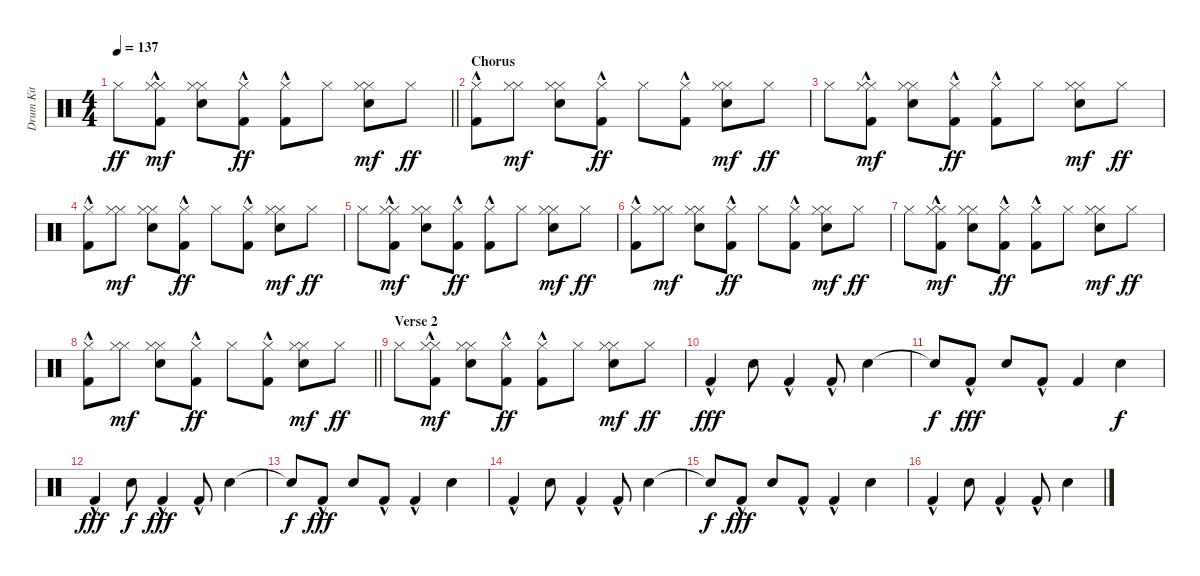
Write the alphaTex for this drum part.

\track ("Drum Kit" "Drum Kit") {instrument percussion}
\staff {score}
\articulation defaults
\ts (4 4)
\tempo 137
\clef neutral
\barLineRight lightlight
\ks c "Hi-Hat (closed)".8{dy ff}
("Kick (hit) 2"{hac} "Hi-Hat (closed)" "Hi-Hat (closed)").8{dy mf} ("Hand Clap (hit)" "Hi-Hat (closed)" "Hi-Hat (closed)").8 ("Kick (hit) 2"{hac} "Hi-Hat (closed)").8{dy ff} ("Kick (hit) 2"{hac} "Hi-Hat (closed)").8 "Hi-Hat (closed)".8 ("Hand Clap (hit)" "Hi-Hat (closed)" "Hi-Hat (closed)").8{dy mf} "Hi-Hat (closed)".8{dy ff} |
\section ("" "Chorus")
("Kick (hit) 2"{hac} "Hi-Hat (closed)").8 ("Hi-Hat (closed)" "Hi-Hat (closed)").8{dy mf} ("Hand Clap (hit)" "Hi-Hat (closed)" "Hi-Hat (closed)").8 ("Kick (hit) 2"{hac} "Hi-Hat (closed)").8{dy ff} "Hi-Hat (closed)".8 ("Kick (hit) 2"{hac} "Hi-Hat (closed)").8 ("Hand Clap (hit)" "Hi-Hat (closed)" "Hi-Hat (closed)").8{dy mf} "Hi-Hat (closed)".8{dy ff} |
"Hi-Hat (closed)".8 ("Kick (hit) 2"{hac} "Hi-Hat (closed)" "Hi-Hat (closed)").8{dy mf} ("Hand Clap (hit)" "Hi-Hat (closed)" "Hi-Hat (closed)").8 ("Kick (hit) 2"{hac} "Hi-Hat (closed)").8{dy ff} ("Kick (hit) 2"{hac} "Hi-Hat (closed)").8 "Hi-Hat (closed)".8 ("Hand Clap (hit)" "Hi-Hat (closed)" "Hi-Hat (closed)").8{dy mf} "Hi-Hat (closed)".8{dy ff} |
("Kick (hit) 2"{hac} "Hi-Hat (closed)").8 ("Hi-Hat (closed)" "Hi-Hat (closed)").8{dy mf} ("Hand Clap (hit)" "Hi-Hat (closed)" "Hi-Hat (closed)").8 ("Kick (hit) 2"{hac} "Hi-Hat (closed)").8{dy ff} "Hi-Hat (closed)".8 ("Kick (hit) 2"{hac} "Hi-Hat (closed)").8 ("Hand Clap (hit)" "Hi-Hat (closed)" "Hi-Hat (closed)").8{dy mf} "Hi-Hat (closed)".8{dy ff} |
"Hi-Hat (closed)".8 ("Kick (hit) 2"{hac} "Hi-Hat (closed)" "Hi-Hat (closed)").8{dy mf} ("Hand Clap (hit)" "Hi-Hat (closed)" "Hi-Hat (closed)").8 ("Kick (hit) 2"{hac} "Hi-Hat (closed)").8{dy ff} ("Kick (hit) 2"{hac} "Hi-Hat (closed)").8 "Hi-Hat (closed)".8 ("Hand Clap (hit)" "Hi-Hat (closed)" "Hi-Hat (closed)").8{dy mf} "Hi-Hat (closed)".8{dy ff} |
("Kick (hit) 2"{hac} "Hi-Hat (closed)").8 ("Hi-Hat (closed)" "Hi-Hat (closed)").8{dy mf} ("Hand Clap (hit)" "Hi-Hat (closed)" "Hi-Hat (closed)").8 ("Kick (hit) 2"{hac} "Hi-Hat (closed)").8{dy ff} "Hi-Hat (closed)".8 ("Kick (hit) 2"{hac} "Hi-Hat (closed)").8 ("Hand Clap (hit)" "Hi-Hat (closed)" "Hi-Hat (closed)").8{dy mf} "Hi-Hat (closed)".8{dy ff} |
"Hi-Hat (closed)".8 ("Kick (hit) 2"{hac} "Hi-Hat (closed)" "Hi-Hat (closed)").8{dy mf} ("Hand Clap (hit)" "Hi-Hat (closed)" "Hi-Hat (closed)").8 ("Kick (hit) 2"{hac} "Hi-Hat (closed)").8{dy ff} ("Kick (hit) 2"{hac} "Hi-Hat (closed)").8 "Hi-Hat (closed)".8 ("Hand Clap (hit)" "Hi-Hat (closed)" "Hi-Hat (closed)").8{dy mf} "Hi-Hat (closed)".8{dy ff} |
\barLineRight lightlight
("Kick (hit) 2"{hac} "Hi-Hat (closed)").8 ("Hi-Hat (closed)" "Hi-Hat (closed)").8{dy mf} ("Hand Clap (hit)" "Hi-Hat (closed)" "Hi-Hat (closed)").8 ("Kick (hit) 2"{hac} "Hi-Hat (closed)").8{dy ff} "Hi-Hat (closed)".8 ("Kick (hit) 2"{hac} "Hi-Hat (closed)").8 ("Hand Clap (hit)" "Hi-Hat (closed)" "Hi-Hat (closed)").8{dy mf} "Hi-Hat (closed)".8{dy ff} |
\section ("" "Verse 2")
"Hi-Hat (closed)".8 ("Kick (hit) 2"{hac} "Hi-Hat (closed)" "Hi-Hat (closed)").8{dy mf} ("Hand Clap (hit)" "Hi-Hat (closed)" "Hi-Hat (closed)").8 ("Kick (hit) 2"{hac} "Hi-Hat (closed)").8{dy ff} ("Kick (hit) 2"{hac} "Hi-Hat (closed)").8 "Hi-Hat (closed)".8 ("Hand Clap (hit)" "Hi-Hat (closed)" "Hi-Hat (closed)").8{dy mf} "Hi-Hat (closed)".8{dy ff} |
"Kick (hit) 2"{hac}.4{dy fff} "Hand Clap (hit)".8 "Kick (hit) 2"{hac}.4 "Kick (hit) 2"{hac}.8 "Hand Clap (hit)".4 |
"Snare (hit)"{t}.8{dy f} "Kick (hit) 2"{hac}.8{dy fff} "Hand Clap (hit)".8 "Kick (hit) 2"{hac}.8 "Kick (hit) 2".4 "Hand Clap (hit)".4{dy f} |
"Kick (hit) 2"{hac}.4{dy fff} "Hand Clap (hit)".8{dy f} "Kick (hit) 2"{hac}.4{dy fff} "Kick (hit) 2"{hac}.8 "Hand Clap (hit)".4 |
"Snare (hit)"{t}.8{dy f} "Kick (hit) 2"{hac}.8{dy fff} "Hand Clap (hit)".8 "Kick (hit) 2"{hac}.8 "Kick (hit) 2"{hac}.4 "Hand Clap (hit)".4 |
"Kick (hit) 2"{hac}.4 "Hand Clap (hit)".8 "Kick (hit) 2"{hac}.4 "Kick (hit) 2"{hac}.8 "Hand Clap (hit)".4 |
"Snare (hit)"{t}.8{dy f} "Kick (hit) 2"{hac}.8{dy fff} "Hand Clap (hit)".8 "Kick (hit) 2"{hac}.8 "Kick (hit) 2"{hac}.4 "Hand Clap (hit)".4 |
"Kick (hit) 2"{hac}.4 "Hand Clap (hit)".8 "Kick (hit) 2"{hac}.4 "Kick (hit) 2"{hac}.8 "Hand Clap (hit)".4
